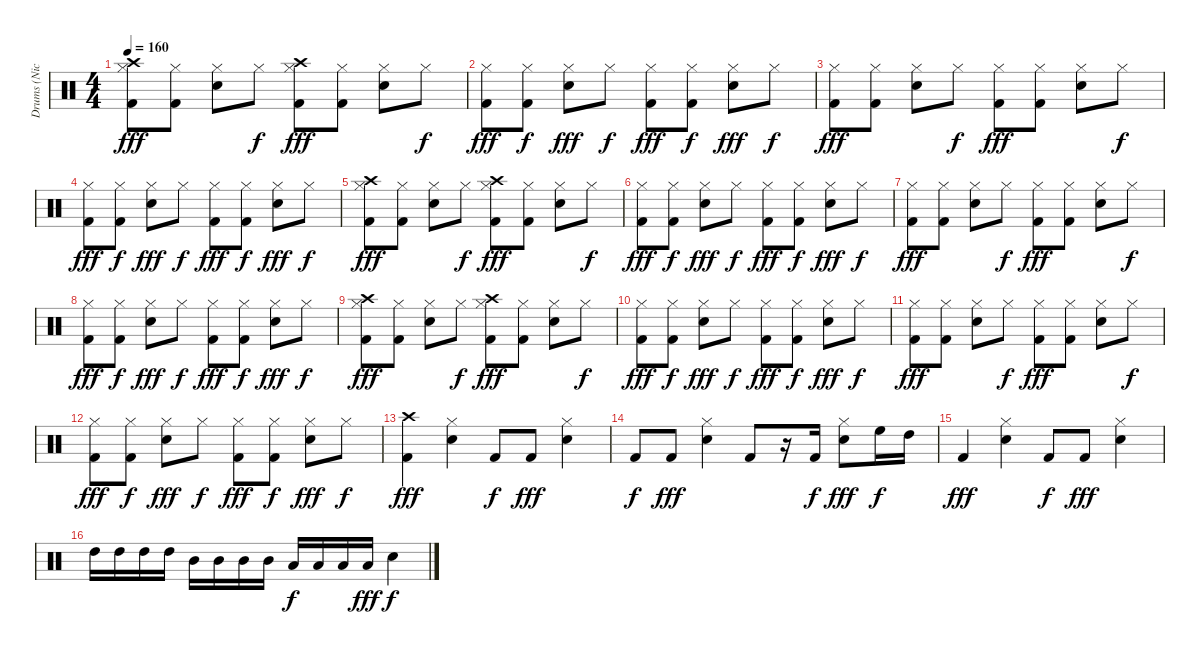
\track ("Drums (Nicko)" "Drums (Nic") {instrument percussion}
\staff {score}
\articulation defaults
\ts (4 4)
\tempo 160
\clef neutral
\ks c
("Hi-Hat (closed)" "Kick (hit) 2" "Crash high (hit)").8{dy fff} ("Hi-Hat (closed)" "Kick (hit) 2").8 ("Hi-Hat (closed)" "Snare (hit) 2").8 "Hi-Hat (closed)".8{dy f} ("Hi-Hat (closed)" "Kick (hit) 2" "Crash high (hit)").8{dy fff} ("Hi-Hat (closed)" "Kick (hit) 2").8 ("Hi-Hat (closed)" "Snare (hit) 2").8 "Hi-Hat (closed)".8{dy f} |
("Hi-Hat (closed)" "Kick (hit) 2").8{dy fff} ("Hi-Hat (closed)" "Kick (hit) 2").8{dy f} ("Hi-Hat (closed)" "Snare (hit) 2").8{dy fff} "Hi-Hat (closed)".8{dy f} ("Hi-Hat (closed)" "Kick (hit) 2").8{dy fff} ("Hi-Hat (closed)" "Kick (hit) 2").8{dy f} ("Hi-Hat (closed)" "Snare (hit) 2").8{dy fff} "Hi-Hat (closed)".8{dy f} |
("Hi-Hat (closed)" "Kick (hit) 2").8{dy fff} ("Hi-Hat (closed)" "Kick (hit) 2").8 ("Hi-Hat (closed)" "Snare (hit) 2").8 "Hi-Hat (closed)".8{dy f} ("Hi-Hat (closed)" "Kick (hit) 2").8{dy fff} ("Hi-Hat (closed)" "Kick (hit) 2").8 ("Hi-Hat (closed)" "Snare (hit) 2").8 "Hi-Hat (closed)".8{dy f} |
("Hi-Hat (closed)" "Kick (hit) 2").8{dy fff} ("Hi-Hat (closed)" "Kick (hit) 2").8{dy f} ("Hi-Hat (closed)" "Snare (hit) 2").8{dy fff} "Hi-Hat (closed)".8{dy f} ("Hi-Hat (closed)" "Kick (hit) 2").8{dy fff} ("Hi-Hat (closed)" "Kick (hit) 2").8{dy f} ("Hi-Hat (closed)" "Snare (hit) 2").8{dy fff} "Hi-Hat (closed)".8{dy f} |
("Hi-Hat (closed)" "Kick (hit) 2" "Crash high (hit)").8{dy fff} ("Hi-Hat (closed)" "Kick (hit) 2").8 ("Hi-Hat (closed)" "Snare (hit) 2").8 "Hi-Hat (closed)".8{dy f} ("Hi-Hat (closed)" "Kick (hit) 2" "Crash high (hit)").8{dy fff} ("Hi-Hat (closed)" "Kick (hit) 2").8 ("Hi-Hat (closed)" "Snare (hit) 2").8 "Hi-Hat (closed)".8{dy f} |
("Hi-Hat (closed)" "Kick (hit) 2").8{dy fff} ("Hi-Hat (closed)" "Kick (hit) 2").8{dy f} ("Hi-Hat (closed)" "Snare (hit) 2").8{dy fff} "Hi-Hat (closed)".8{dy f} ("Hi-Hat (closed)" "Kick (hit) 2").8{dy fff} ("Hi-Hat (closed)" "Kick (hit) 2").8{dy f} ("Hi-Hat (closed)" "Snare (hit) 2").8{dy fff} "Hi-Hat (closed)".8{dy f} |
("Hi-Hat (closed)" "Kick (hit) 2").8{dy fff} ("Hi-Hat (closed)" "Kick (hit) 2").8 ("Hi-Hat (closed)" "Snare (hit) 2").8 "Hi-Hat (closed)".8{dy f} ("Hi-Hat (closed)" "Kick (hit) 2").8{dy fff} ("Hi-Hat (closed)" "Kick (hit) 2").8 ("Hi-Hat (closed)" "Snare (hit) 2").8 "Hi-Hat (closed)".8{dy f} |
("Hi-Hat (closed)" "Kick (hit) 2").8{dy fff} ("Hi-Hat (closed)" "Kick (hit) 2").8{dy f} ("Hi-Hat (closed)" "Snare (hit) 2").8{dy fff} "Hi-Hat (closed)".8{dy f} ("Hi-Hat (closed)" "Kick (hit) 2").8{dy fff} ("Hi-Hat (closed)" "Kick (hit) 2").8{dy f} ("Hi-Hat (closed)" "Snare (hit) 2").8{dy fff} "Hi-Hat (closed)".8{dy f} |
("Hi-Hat (closed)" "Kick (hit) 2" "Crash high (hit)").8{dy fff} ("Hi-Hat (closed)" "Kick (hit) 2").8 ("Hi-Hat (closed)" "Snare (hit) 2").8 "Hi-Hat (closed)".8{dy f} ("Hi-Hat (closed)" "Kick (hit) 2" "Crash high (hit)").8{dy fff} ("Hi-Hat (closed)" "Kick (hit) 2").8 ("Hi-Hat (closed)" "Snare (hit) 2").8 "Hi-Hat (closed)".8{dy f} |
("Hi-Hat (closed)" "Kick (hit) 2").8{dy fff} ("Hi-Hat (closed)" "Kick (hit) 2").8{dy f} ("Hi-Hat (closed)" "Snare (hit) 2").8{dy fff} "Hi-Hat (closed)".8{dy f} ("Hi-Hat (closed)" "Kick (hit) 2").8{dy fff} ("Hi-Hat (closed)" "Kick (hit) 2").8{dy f} ("Hi-Hat (closed)" "Snare (hit) 2").8{dy fff} "Hi-Hat (closed)".8{dy f} |
("Hi-Hat (closed)" "Kick (hit) 2").8{dy fff} ("Hi-Hat (closed)" "Kick (hit) 2").8 ("Hi-Hat (closed)" "Snare (hit) 2").8 "Hi-Hat (closed)".8{dy f} ("Hi-Hat (closed)" "Kick (hit) 2").8{dy fff} ("Hi-Hat (closed)" "Kick (hit) 2").8 ("Hi-Hat (closed)" "Snare (hit) 2").8 "Hi-Hat (closed)".8{dy f} |
("Hi-Hat (closed)" "Kick (hit) 2").8{dy fff} ("Hi-Hat (closed)" "Kick (hit) 2").8{dy f} ("Hi-Hat (closed)" "Snare (hit) 2").8{dy fff} "Hi-Hat (closed)".8{dy f} ("Hi-Hat (closed)" "Kick (hit) 2").8{dy fff} ("Hi-Hat (closed)" "Kick (hit) 2").8{dy f} ("Hi-Hat (closed)" "Snare (hit) 2").8{dy fff} "Hi-Hat (closed)".8{dy f} |
("Kick (hit) 2" "Crash high (hit)").4{dy fff} ("Hi-Hat (closed)" "Snare (hit) 2").4 "Kick (hit) 2".8{dy f} "Kick (hit) 2".8{dy fff} ("Hi-Hat (closed)" "Snare (hit) 2").4 |
"Kick (hit) 2".8{dy f} "Kick (hit) 2".8{dy fff} ("Hi-Hat (closed)" "Snare (hit) 2").4 "Kick (hit) 2".8 r.16 "Kick (hit) 2".16{dy f} ("Hi-Hat (closed)" "Snare (hit) 2").8{dy fff} "High Floor Tom (hit)".16{dy f} "High Tom (hit)".16 |
"Kick (hit) 2".4{dy fff} ("Hi-Hat (closed)" "Snare (hit) 2").4 "Kick (hit) 2".8{dy f} "Kick (hit) 2".8{dy fff} ("Hi-Hat (closed)" "Snare (hit) 2").4 |
"High Tom (hit)".16 "High Tom (hit)".16 "High Tom (hit)".16 "High Tom (hit)".16 "Mid Tom (hit)".16 "Mid Tom (hit)".16 "Mid Tom (hit)".16 "Mid Tom (hit)".16 "Low Tom (hit)".16{dy f} "Low Tom (hit)".16 "Low Tom (hit)".16 "Low Tom (hit)".16{dy fff} "Snare (hit) 2".4{dy f}
